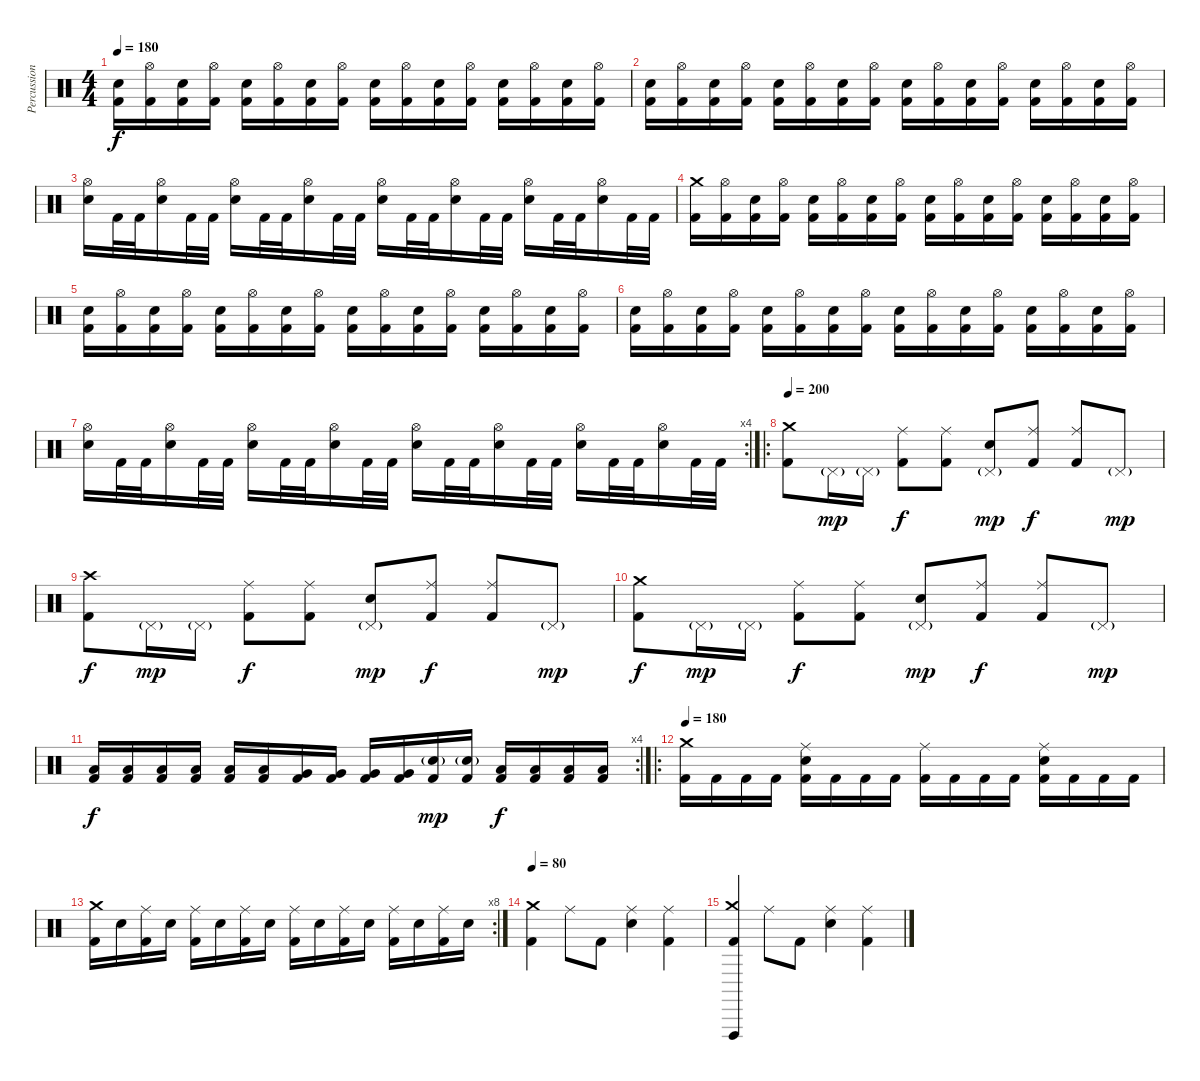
\track ("Percussion" "Percussion") {instrument percussion}
\staff {score}
\articulation defaults
\ts (4 4)
\tempo 180
\clef neutral
\ks c
("Electric Snare (hit)" "Kick (hit) 2").16{dy f} ("Hi-Hat (open)" "Kick (hit) 2").16 ("Electric Snare (hit)" "Kick (hit) 2").16 ("Hi-Hat (open)" "Kick (hit) 2").16 ("Electric Snare (hit)" "Kick (hit) 2").16 ("Hi-Hat (open)" "Kick (hit) 2").16 ("Electric Snare (hit)" "Kick (hit) 2").16 ("Hi-Hat (open)" "Kick (hit) 2").16 ("Electric Snare (hit)" "Kick (hit) 2").16 ("Hi-Hat (open)" "Kick (hit) 2").16 ("Electric Snare (hit)" "Kick (hit) 2").16 ("Hi-Hat (open)" "Kick (hit) 2").16 ("Electric Snare (hit)" "Kick (hit) 2").16 ("Hi-Hat (open)" "Kick (hit) 2").16 ("Electric Snare (hit)" "Kick (hit) 2").16 ("Hi-Hat (open)" "Kick (hit) 2").16 |
("Electric Snare (hit)" "Kick (hit) 2").16 ("Hi-Hat (open)" "Kick (hit) 2").16 ("Electric Snare (hit)" "Kick (hit) 2").16 ("Hi-Hat (open)" "Kick (hit) 2").16 ("Electric Snare (hit)" "Kick (hit) 2").16 ("Hi-Hat (open)" "Kick (hit) 2").16 ("Electric Snare (hit)" "Kick (hit) 2").16 ("Hi-Hat (open)" "Kick (hit) 2").16 ("Electric Snare (hit)" "Kick (hit) 2").16 ("Hi-Hat (open)" "Kick (hit) 2").16 ("Electric Snare (hit)" "Kick (hit) 2").16 ("Hi-Hat (open)" "Kick (hit) 2").16 ("Electric Snare (hit)" "Kick (hit) 2").16 ("Hi-Hat (open)" "Kick (hit) 2").16 ("Electric Snare (hit)" "Kick (hit) 2").16 ("Hi-Hat (open)" "Kick (hit) 2").16 |
("Hi-Hat (open)" "Electric Snare (hit)").16 "Kick (hit) 2".32 "Kick (hit) 2".32 ("Hi-Hat (open)" "Electric Snare (hit)").16 "Kick (hit) 2".32 "Kick (hit) 2".32 ("Hi-Hat (open)" "Electric Snare (hit)").16 "Kick (hit) 2".32 "Kick (hit) 2".32 ("Hi-Hat (open)" "Electric Snare (hit)").16 "Kick (hit) 2".32 "Kick (hit) 2".32 ("Hi-Hat (open)" "Electric Snare (hit)").16 "Kick (hit) 2".32 "Kick (hit) 2".32 ("Hi-Hat (open)" "Electric Snare (hit)").16 "Kick (hit) 2".32 "Kick (hit) 2".32 ("Hi-Hat (open)" "Electric Snare (hit)").16 "Kick (hit) 2".32 "Kick (hit) 2".32 ("Hi-Hat (open)" "Electric Snare (hit)").16 "Kick (hit) 2".32 "Kick (hit) 2".32 |
("Crash medium (hit)" "Kick (hit) 2").16 ("Hi-Hat (open)" "Kick (hit) 2").16 ("Electric Snare (hit)" "Kick (hit) 2").16 ("Hi-Hat (open)" "Kick (hit) 2").16 ("Electric Snare (hit)" "Kick (hit) 2").16 ("Hi-Hat (open)" "Kick (hit) 2").16 ("Electric Snare (hit)" "Kick (hit) 2").16 ("Hi-Hat (open)" "Kick (hit) 2").16 ("Electric Snare (hit)" "Kick (hit) 2").16 ("Hi-Hat (open)" "Kick (hit) 2").16 ("Electric Snare (hit)" "Kick (hit) 2").16 ("Hi-Hat (open)" "Kick (hit) 2").16 ("Electric Snare (hit)" "Kick (hit) 2").16 ("Hi-Hat (open)" "Kick (hit) 2").16 ("Electric Snare (hit)" "Kick (hit) 2").16 ("Hi-Hat (open)" "Kick (hit) 2").16 |
("Electric Snare (hit)" "Kick (hit) 2").16 ("Hi-Hat (open)" "Kick (hit) 2").16 ("Electric Snare (hit)" "Kick (hit) 2").16 ("Hi-Hat (open)" "Kick (hit) 2").16 ("Electric Snare (hit)" "Kick (hit) 2").16 ("Hi-Hat (open)" "Kick (hit) 2").16 ("Electric Snare (hit)" "Kick (hit) 2").16 ("Hi-Hat (open)" "Kick (hit) 2").16 ("Electric Snare (hit)" "Kick (hit) 2").16 ("Hi-Hat (open)" "Kick (hit) 2").16 ("Electric Snare (hit)" "Kick (hit) 2").16 ("Hi-Hat (open)" "Kick (hit) 2").16 ("Electric Snare (hit)" "Kick (hit) 2").16 ("Hi-Hat (open)" "Kick (hit) 2").16 ("Electric Snare (hit)" "Kick (hit) 2").16 ("Hi-Hat (open)" "Kick (hit) 2").16 |
("Electric Snare (hit)" "Kick (hit) 2").16 ("Hi-Hat (open)" "Kick (hit) 2").16 ("Electric Snare (hit)" "Kick (hit) 2").16 ("Hi-Hat (open)" "Kick (hit) 2").16 ("Electric Snare (hit)" "Kick (hit) 2").16 ("Hi-Hat (open)" "Kick (hit) 2").16 ("Electric Snare (hit)" "Kick (hit) 2").16 ("Hi-Hat (open)" "Kick (hit) 2").16 ("Electric Snare (hit)" "Kick (hit) 2").16 ("Hi-Hat (open)" "Kick (hit) 2").16 ("Electric Snare (hit)" "Kick (hit) 2").16 ("Hi-Hat (open)" "Kick (hit) 2").16 ("Electric Snare (hit)" "Kick (hit) 2").16 ("Hi-Hat (open)" "Kick (hit) 2").16 ("Electric Snare (hit)" "Kick (hit) 2").16 ("Hi-Hat (open)" "Kick (hit) 2").16 |
\rc 4
("Hi-Hat (open)" "Electric Snare (hit)").16 "Kick (hit) 2".32 "Kick (hit) 2".32 ("Hi-Hat (open)" "Electric Snare (hit)").16 "Kick (hit) 2".32 "Kick (hit) 2".32 ("Hi-Hat (open)" "Electric Snare (hit)").16 "Kick (hit) 2".32 "Kick (hit) 2".32 ("Hi-Hat (open)" "Electric Snare (hit)").16 "Kick (hit) 2".32 "Kick (hit) 2".32 ("Hi-Hat (open)" "Electric Snare (hit)").16 "Kick (hit) 2".32 "Kick (hit) 2".32 ("Hi-Hat (open)" "Electric Snare (hit)").16 "Kick (hit) 2".32 "Kick (hit) 2".32 ("Hi-Hat (open)" "Electric Snare (hit)").16 "Kick (hit) 2".32 "Kick (hit) 2".32 ("Hi-Hat (open)" "Electric Snare (hit)").16 "Kick (hit) 2".32 "Kick (hit) 2".32 |
\ro
\tempo 200
("Crash medium (hit)" "Kick (hit) 2").8 "Pedal Hi-Hat (hit)"{g}.16{dy mp} "Pedal Hi-Hat (hit)"{g}.16 ("Ride (middle)" "Kick (hit) 2").8{dy f} ("Ride (middle)" "Kick (hit) 2").8 ("Pedal Hi-Hat (hit)"{g} "Electric Snare (hit)").8{dy mp} ("Ride (middle)" "Kick (hit) 2").8{dy f} ("Ride (middle)" "Kick (hit) 2").8 "Pedal Hi-Hat (hit)"{g}.8{dy mp} |
("Crash high (hit)" "Kick (hit) 2").8{dy f} "Pedal Hi-Hat (hit)"{g}.16{dy mp} "Pedal Hi-Hat (hit)"{g}.16 ("Ride (middle)" "Kick (hit) 2").8{dy f} ("Ride (middle)" "Kick (hit) 2").8 ("Pedal Hi-Hat (hit)"{g} "Electric Snare (hit)").8{dy mp} ("Ride (middle)" "Kick (hit) 2").8{dy f} ("Ride (middle)" "Kick (hit) 2").8 "Pedal Hi-Hat (hit)"{g}.8{dy mp} |
("Crash medium (hit)" "Kick (hit) 2").8{dy f} "Pedal Hi-Hat (hit)"{g}.16{dy mp} "Pedal Hi-Hat (hit)"{g}.16 ("Ride (middle)" "Kick (hit) 2").8{dy f} ("Ride (middle)" "Kick (hit) 2").8 ("Pedal Hi-Hat (hit)"{g} "Electric Snare (hit)").8{dy mp} ("Ride (middle)" "Kick (hit) 2").8{dy f} ("Ride (middle)" "Kick (hit) 2").8 "Pedal Hi-Hat (hit)"{g}.8{dy mp} |
\rc 4
("Low Tom (hit)" "Kick (hit) 2").16{dy f} ("Low Tom (hit)" "Kick (hit) 2").16 ("Low Tom (hit)" "Kick (hit) 2").16 ("Low Tom (hit)" "Kick (hit) 2").16 ("Low Tom (hit)" "Kick (hit) 2").16 ("Low Tom (hit)" "Kick (hit) 2").16 ("Very Low Tom (hit)" "Kick (hit) 2").16 ("Very Low Tom (hit)" "Kick (hit) 2").16 ("Very Low Tom (hit)" "Kick (hit) 2").16 ("Very Low Tom (hit)" "Kick (hit) 2").16 ("Electric Snare (hit)"{g} "Kick (hit) 2").16{dy mp} ("Electric Snare (hit)"{g} "Kick (hit) 2").16 ("Low Floor Tom (hit)" "Kick (hit) 2").16{dy f} ("Low Floor Tom (hit)" "Kick (hit) 2").16 ("Low Floor Tom (hit)" "Kick (hit) 2").16 ("Low Floor Tom (hit)" "Kick (hit) 2").16 |
\ro
\tempo 180
("Crash medium (hit)" "Kick (hit) 2").16 "Kick (hit) 2".16 "Kick (hit) 2".16 "Kick (hit) 2".16 ("Ride (middle)" "Electric Snare (hit)" "Kick (hit) 2").16 "Kick (hit) 2".16 "Kick (hit) 2".16 "Kick (hit) 2".16 ("Ride (middle)" "Kick (hit) 2").16 "Kick (hit) 2".16 "Kick (hit) 2".16 "Kick (hit) 2".16 ("Ride (middle)" "Electric Snare (hit)" "Kick (hit) 2").16 "Kick (hit) 2".16 "Kick (hit) 2".16 "Kick (hit) 2".16 |
\rc 8
("Crash medium (hit)" "Kick (hit) 2").16 "Electric Snare (hit)".16 ("Ride (middle)" "Kick (hit) 2").16 "Electric Snare (hit)".16 ("Ride (middle)" "Kick (hit) 2").16 "Electric Snare (hit)".16 ("Ride (middle)" "Kick (hit) 2").16 "Electric Snare (hit)".16 ("Ride (middle)" "Kick (hit) 2").16 "Electric Snare (hit)".16 ("Ride (middle)" "Kick (hit) 2").16 "Electric Snare (hit)".16 ("Ride (middle)" "Kick (hit) 2").16 "Electric Snare (hit)".16 ("Ride (middle)" "Kick (hit) 2").16 "Electric Snare (hit)".16 |
\tempo 80
("Crash medium (hit)" "Kick (hit) 2").4 "Ride (middle)".8 "Kick (hit) 2".8 ("Ride (middle)" "Electric Snare (hit)").4 ("Ride (middle)" "Kick (hit) 2").4 |
("Vibraslap (hit)" "Crash medium (hit)" "Kick (hit) 2").4 "Ride (middle)".8 "Kick (hit) 2".8 ("Ride (middle)" "Electric Snare (hit)").4 ("Ride (middle)" "Kick (hit) 2").4
